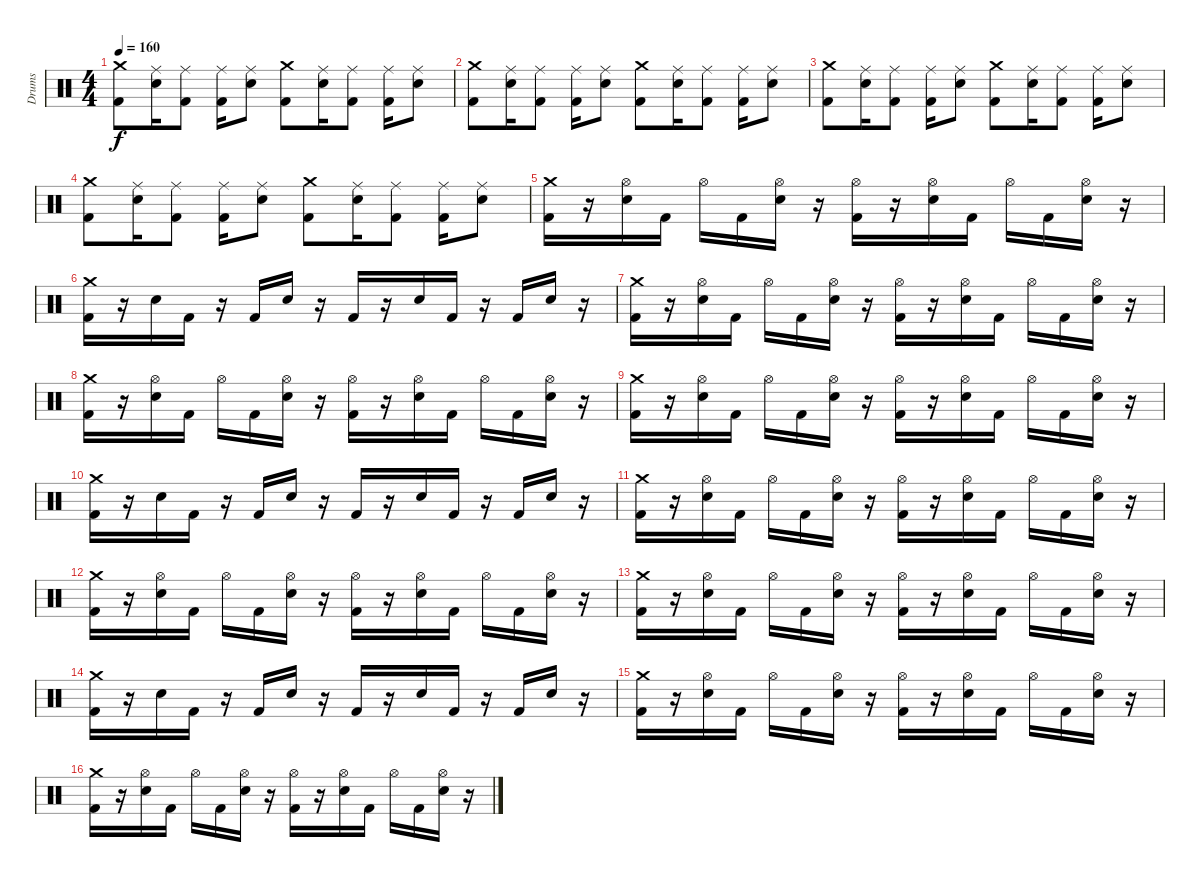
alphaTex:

\track ("Drums" "Drums") {instrument percussion}
\staff {score}
\articulation defaults
\ts (4 4)
\tempo 160
\clef neutral
\ks c
("Crash medium (hit)" "Kick (hit) 2").8{dy f} ("Snare (hit) 2" "Ride (middle)").16 ("Ride (middle)" "Kick (hit) 2").8 ("Ride (middle)" "Kick (hit) 2").16 ("Snare (hit) 2" "Ride (middle)").8 ("Crash medium (hit)" "Kick (hit) 2").8 ("Snare (hit) 2" "Ride (middle)").16 ("Ride (middle)" "Kick (hit) 2").8 ("Ride (middle)" "Kick (hit) 2").16 ("Snare (hit) 2" "Ride (middle)").8 |
("Crash medium (hit)" "Kick (hit) 2").8 ("Snare (hit) 2" "Ride (middle)").16 ("Ride (middle)" "Kick (hit) 2").8 ("Ride (middle)" "Kick (hit) 2").16 ("Snare (hit) 2" "Ride (middle)").8 ("Crash medium (hit)" "Kick (hit) 2").8 ("Snare (hit) 2" "Ride (middle)").16 ("Ride (middle)" "Kick (hit) 2").8 ("Ride (middle)" "Kick (hit) 2").16 ("Snare (hit) 2" "Ride (middle)").8 |
("Crash medium (hit)" "Kick (hit) 2").8 ("Snare (hit) 2" "Ride (middle)").16 ("Ride (middle)" "Kick (hit) 2").8 ("Ride (middle)" "Kick (hit) 2").16 ("Snare (hit) 2" "Ride (middle)").8 ("Crash medium (hit)" "Kick (hit) 2").8 ("Snare (hit) 2" "Ride (middle)").16 ("Ride (middle)" "Kick (hit) 2").8 ("Ride (middle)" "Kick (hit) 2").16 ("Snare (hit) 2" "Ride (middle)").8 |
("Crash medium (hit)" "Kick (hit) 2").8 ("Snare (hit) 2" "Ride (middle)").16 ("Ride (middle)" "Kick (hit) 2").8 ("Ride (middle)" "Kick (hit) 2").16 ("Snare (hit) 2" "Ride (middle)").8 ("Crash medium (hit)" "Kick (hit) 2").8 ("Snare (hit) 2" "Ride (middle)").16 ("Ride (middle)" "Kick (hit) 2").8 ("Ride (middle)" "Kick (hit) 2").16 ("Snare (hit) 2" "Ride (middle)").8 |
("Crash medium (hit)" "Kick (hit) 2").16 r.16 ("Snare (hit) 2" "Hi-Hat (open)").16 "Kick (hit) 2".16 "Hi-Hat (open)".16 "Kick (hit) 2".16 ("Snare (hit) 2" "Hi-Hat (open)").16 r.16 ("Hi-Hat (open)" "Kick (hit) 2").16 r.16 ("Snare (hit) 2" "Hi-Hat (open)").16 "Kick (hit) 2".16 "Hi-Hat (open)".16 "Kick (hit) 2".16 ("Snare (hit) 2" "Hi-Hat (open)").16 r.16 |
("Crash medium (hit)" "Kick (hit) 2").16 r.16 "Snare (hit) 2".16 "Kick (hit) 2".16 r.16 "Kick (hit) 2".16 "Snare (hit) 2".16 r.16 "Kick (hit) 2".16 r.16 "Snare (hit) 2".16 "Kick (hit) 2".16 r.16 "Kick (hit) 2".16 "Snare (hit) 2".16 r.16 |
("Crash medium (hit)" "Kick (hit) 2").16 r.16 ("Snare (hit) 2" "Hi-Hat (open)").16 "Kick (hit) 2".16 "Hi-Hat (open)".16 "Kick (hit) 2".16 ("Snare (hit) 2" "Hi-Hat (open)").16 r.16 ("Hi-Hat (open)" "Kick (hit) 2").16 r.16 ("Snare (hit) 2" "Hi-Hat (open)").16 "Kick (hit) 2".16 "Hi-Hat (open)".16 "Kick (hit) 2".16 ("Snare (hit) 2" "Hi-Hat (open)").16 r.16 |
("Crash medium (hit)" "Kick (hit) 2").16 r.16 ("Snare (hit) 2" "Hi-Hat (open)").16 "Kick (hit) 2".16 "Hi-Hat (open)".16 "Kick (hit) 2".16 ("Snare (hit) 2" "Hi-Hat (open)").16 r.16 ("Hi-Hat (open)" "Kick (hit) 2").16 r.16 ("Snare (hit) 2" "Hi-Hat (open)").16 "Kick (hit) 2".16 "Hi-Hat (open)".16 "Kick (hit) 2".16 ("Snare (hit) 2" "Hi-Hat (open)").16 r.16 |
("Crash medium (hit)" "Kick (hit) 2").16 r.16 ("Snare (hit) 2" "Hi-Hat (open)").16 "Kick (hit) 2".16 "Hi-Hat (open)".16 "Kick (hit) 2".16 ("Snare (hit) 2" "Hi-Hat (open)").16 r.16 ("Hi-Hat (open)" "Kick (hit) 2").16 r.16 ("Snare (hit) 2" "Hi-Hat (open)").16 "Kick (hit) 2".16 "Hi-Hat (open)".16 "Kick (hit) 2".16 ("Snare (hit) 2" "Hi-Hat (open)").16 r.16 |
("Crash medium (hit)" "Kick (hit) 2").16 r.16 "Snare (hit) 2".16 "Kick (hit) 2".16 r.16 "Kick (hit) 2".16 "Snare (hit) 2".16 r.16 "Kick (hit) 2".16 r.16 "Snare (hit) 2".16 "Kick (hit) 2".16 r.16 "Kick (hit) 2".16 "Snare (hit) 2".16 r.16 |
("Crash medium (hit)" "Kick (hit) 2").16 r.16 ("Snare (hit) 2" "Hi-Hat (open)").16 "Kick (hit) 2".16 "Hi-Hat (open)".16 "Kick (hit) 2".16 ("Snare (hit) 2" "Hi-Hat (open)").16 r.16 ("Hi-Hat (open)" "Kick (hit) 2").16 r.16 ("Snare (hit) 2" "Hi-Hat (open)").16 "Kick (hit) 2".16 "Hi-Hat (open)".16 "Kick (hit) 2".16 ("Snare (hit) 2" "Hi-Hat (open)").16 r.16 |
("Crash medium (hit)" "Kick (hit) 2").16 r.16 ("Snare (hit) 2" "Hi-Hat (open)").16 "Kick (hit) 2".16 "Hi-Hat (open)".16 "Kick (hit) 2".16 ("Snare (hit) 2" "Hi-Hat (open)").16 r.16 ("Hi-Hat (open)" "Kick (hit) 2").16 r.16 ("Snare (hit) 2" "Hi-Hat (open)").16 "Kick (hit) 2".16 "Hi-Hat (open)".16 "Kick (hit) 2".16 ("Snare (hit) 2" "Hi-Hat (open)").16 r.16 |
("Crash medium (hit)" "Kick (hit) 2").16 r.16 ("Snare (hit) 2" "Hi-Hat (open)").16 "Kick (hit) 2".16 "Hi-Hat (open)".16 "Kick (hit) 2".16 ("Snare (hit) 2" "Hi-Hat (open)").16 r.16 ("Hi-Hat (open)" "Kick (hit) 2").16 r.16 ("Snare (hit) 2" "Hi-Hat (open)").16 "Kick (hit) 2".16 "Hi-Hat (open)".16 "Kick (hit) 2".16 ("Snare (hit) 2" "Hi-Hat (open)").16 r.16 |
("Crash medium (hit)" "Kick (hit) 2").16 r.16 "Snare (hit) 2".16 "Kick (hit) 2".16 r.16 "Kick (hit) 2".16 "Snare (hit) 2".16 r.16 "Kick (hit) 2".16 r.16 "Snare (hit) 2".16 "Kick (hit) 2".16 r.16 "Kick (hit) 2".16 "Snare (hit) 2".16 r.16 |
("Crash medium (hit)" "Kick (hit) 2").16 r.16 ("Snare (hit) 2" "Hi-Hat (open)").16 "Kick (hit) 2".16 "Hi-Hat (open)".16 "Kick (hit) 2".16 ("Snare (hit) 2" "Hi-Hat (open)").16 r.16 ("Hi-Hat (open)" "Kick (hit) 2").16 r.16 ("Snare (hit) 2" "Hi-Hat (open)").16 "Kick (hit) 2".16 "Hi-Hat (open)".16 "Kick (hit) 2".16 ("Snare (hit) 2" "Hi-Hat (open)").16 r.16 |
("Crash medium (hit)" "Kick (hit) 2").16 r.16 ("Snare (hit) 2" "Hi-Hat (open)").16 "Kick (hit) 2".16 "Hi-Hat (open)".16 "Kick (hit) 2".16 ("Snare (hit) 2" "Hi-Hat (open)").16 r.16 ("Hi-Hat (open)" "Kick (hit) 2").16 r.16 ("Snare (hit) 2" "Hi-Hat (open)").16 "Kick (hit) 2".16 "Hi-Hat (open)".16 "Kick (hit) 2".16 ("Snare (hit) 2" "Hi-Hat (open)").16 r.16
